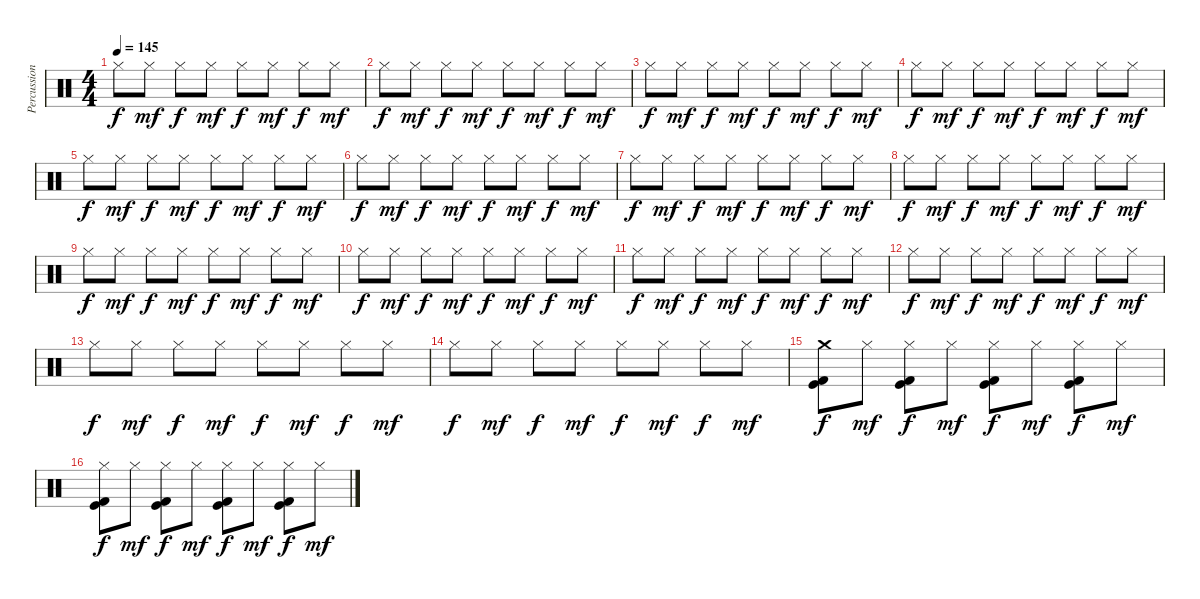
\track ("Percussion" "Percussion") {instrument percussion}
\staff {score}
\articulation defaults
\ts (4 4)
\tempo 145
\clef neutral
\ks c "Hi-Hat (closed)".8{dy f} "Hi-Hat (closed)".8{dy mf} "Hi-Hat (closed)".8{dy f} "Hi-Hat (closed)".8{dy mf} "Hi-Hat (closed)".8{dy f} "Hi-Hat (closed)".8{dy mf} "Hi-Hat (closed)".8{dy f} "Hi-Hat (closed)".8{dy mf}
|
"Hi-Hat (closed)".8{dy f} "Hi-Hat (closed)".8{dy mf} "Hi-Hat (closed)".8{dy f} "Hi-Hat (closed)".8{dy mf} "Hi-Hat (closed)".8{dy f} "Hi-Hat (closed)".8{dy mf} "Hi-Hat (closed)".8{dy f} "Hi-Hat (closed)".8{dy mf} |
"Hi-Hat (closed)".8{dy f} "Hi-Hat (closed)".8{dy mf} "Hi-Hat (closed)".8{dy f} "Hi-Hat (closed)".8{dy mf} "Hi-Hat (closed)".8{dy f} "Hi-Hat (closed)".8{dy mf} "Hi-Hat (closed)".8{dy f} "Hi-Hat (closed)".8{dy mf} |
"Hi-Hat (closed)".8{dy f} "Hi-Hat (closed)".8{dy mf} "Hi-Hat (closed)".8{dy f} "Hi-Hat (closed)".8{dy mf} "Hi-Hat (closed)".8{dy f} "Hi-Hat (closed)".8{dy mf} "Hi-Hat (closed)".8{dy f} "Hi-Hat (closed)".8{dy mf} |
"Hi-Hat (closed)".8{dy f} "Hi-Hat (closed)".8{dy mf} "Hi-Hat (closed)".8{dy f} "Hi-Hat (closed)".8{dy mf} "Hi-Hat (closed)".8{dy f} "Hi-Hat (closed)".8{dy mf} "Hi-Hat (closed)".8{dy f} "Hi-Hat (closed)".8{dy mf} |
"Hi-Hat (closed)".8{dy f} "Hi-Hat (closed)".8{dy mf} "Hi-Hat (closed)".8{dy f} "Hi-Hat (closed)".8{dy mf} "Hi-Hat (closed)".8{dy f} "Hi-Hat (closed)".8{dy mf} "Hi-Hat (closed)".8{dy f} "Hi-Hat (closed)".8{dy mf} |
"Hi-Hat (closed)".8{dy f} "Hi-Hat (closed)".8{dy mf} "Hi-Hat (closed)".8{dy f} "Hi-Hat (closed)".8{dy mf} "Hi-Hat (closed)".8{dy f} "Hi-Hat (closed)".8{dy mf} "Hi-Hat (closed)".8{dy f} "Hi-Hat (closed)".8{dy mf} |
"Hi-Hat (closed)".8{dy f} "Hi-Hat (closed)".8{dy mf} "Hi-Hat (closed)".8{dy f} "Hi-Hat (closed)".8{dy mf} "Hi-Hat (closed)".8{dy f} "Hi-Hat (closed)".8{dy mf} "Hi-Hat (closed)".8{dy f} "Hi-Hat (closed)".8{dy mf} |
"Hi-Hat (closed)".8{dy f} "Hi-Hat (closed)".8{dy mf} "Hi-Hat (closed)".8{dy f} "Hi-Hat (closed)".8{dy mf} "Hi-Hat (closed)".8{dy f} "Hi-Hat (closed)".8{dy mf} "Hi-Hat (closed)".8{dy f} "Hi-Hat (closed)".8{dy mf} |
"Hi-Hat (closed)".8{dy f} "Hi-Hat (closed)".8{dy mf} "Hi-Hat (closed)".8{dy f} "Hi-Hat (closed)".8{dy mf} "Hi-Hat (closed)".8{dy f} "Hi-Hat (closed)".8{dy mf} "Hi-Hat (closed)".8{dy f} "Hi-Hat (closed)".8{dy mf} |
"Hi-Hat (closed)".8{dy f} "Hi-Hat (closed)".8{dy mf} "Hi-Hat (closed)".8{dy f} "Hi-Hat (closed)".8{dy mf} "Hi-Hat (closed)".8{dy f} "Hi-Hat (closed)".8{dy mf} "Hi-Hat (closed)".8{dy f} "Hi-Hat (closed)".8{dy mf} |
"Hi-Hat (closed)".8{dy f} "Hi-Hat (closed)".8{dy mf} "Hi-Hat (closed)".8{dy f} "Hi-Hat (closed)".8{dy mf} "Hi-Hat (closed)".8{dy f} "Hi-Hat (closed)".8{dy mf} "Hi-Hat (closed)".8{dy f} "Hi-Hat (closed)".8{dy mf} |
"Hi-Hat (closed)".8{dy f} "Hi-Hat (closed)".8{dy mf} "Hi-Hat (closed)".8{dy f} "Hi-Hat (closed)".8{dy mf} "Hi-Hat (closed)".8{dy f} "Hi-Hat (closed)".8{dy mf} "Hi-Hat (closed)".8{dy f} "Hi-Hat (closed)".8{dy mf} |
"Hi-Hat (closed)".8{dy f} "Hi-Hat (closed)".8{dy mf} "Hi-Hat (closed)".8{dy f} "Hi-Hat (closed)".8{dy mf} "Hi-Hat (closed)".8{dy f} "Hi-Hat (closed)".8{dy mf} "Hi-Hat (closed)".8{dy f} "Hi-Hat (closed)".8{dy mf} |
("Crash medium (hit)" "Kick (hit)" "Kick (hit) 2").8{dy f} "Hi-Hat (closed)".8{dy mf} ("Hi-Hat (closed)" "Kick (hit)" "Kick (hit) 2").8{dy f} "Hi-Hat (closed)".8{dy mf} ("Hi-Hat (closed)" "Kick (hit)" "Kick (hit) 2").8{dy f} "Hi-Hat (closed)".8{dy mf} ("Hi-Hat (closed)" "Kick (hit)" "Kick (hit) 2").8{dy f} "Hi-Hat (closed)".8{dy mf} |
("Hi-Hat (closed)" "Kick (hit)" "Kick (hit) 2").8{dy f} "Hi-Hat (closed)".8{dy mf} ("Hi-Hat (closed)" "Kick (hit)" "Kick (hit) 2").8{dy f} "Hi-Hat (closed)".8{dy mf} ("Hi-Hat (closed)" "Kick (hit)" "Kick (hit) 2").8{dy f} "Hi-Hat (closed)".8{dy mf} ("Hi-Hat (closed)" "Kick (hit)" "Kick (hit) 2").8{dy f} "Hi-Hat (closed)".8{dy mf}
